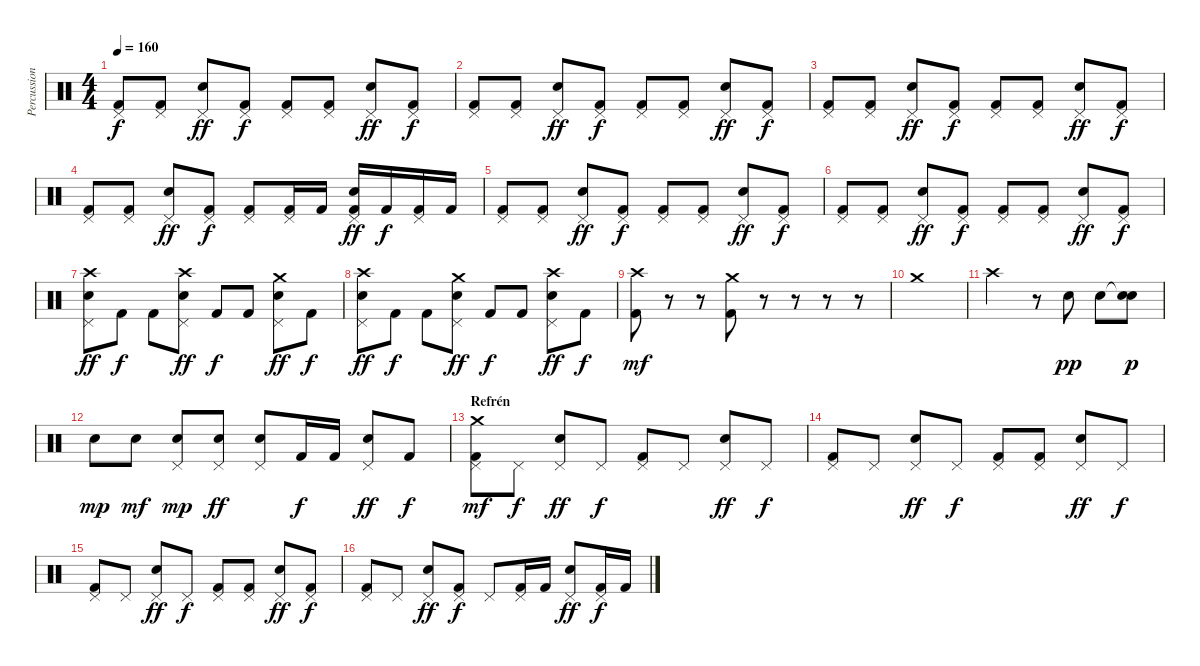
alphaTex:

\track ("Percussion" "Percussion") {instrument percussion}
\staff {score}
\articulation defaults
\ts (4 4)
\tempo 160
\clef neutral
\ks c
("Pedal Hi-Hat (hit)" "Kick (hit) 2").8{dy f} ("Pedal Hi-Hat (hit)" "Kick (hit) 2").8 ("Pedal Hi-Hat (hit)" "Electric Snare (hit)").8{dy ff} ("Pedal Hi-Hat (hit)" "Kick (hit) 2").8{dy f} ("Pedal Hi-Hat (hit)" "Kick (hit) 2").8 ("Pedal Hi-Hat (hit)" "Kick (hit) 2").8 ("Pedal Hi-Hat (hit)" "Electric Snare (hit)").8{dy ff} ("Pedal Hi-Hat (hit)" "Kick (hit) 2").8{dy f} |
("Pedal Hi-Hat (hit)" "Kick (hit) 2").8 ("Pedal Hi-Hat (hit)" "Kick (hit) 2").8 ("Pedal Hi-Hat (hit)" "Electric Snare (hit)").8{dy ff} ("Pedal Hi-Hat (hit)" "Kick (hit) 2").8{dy f} ("Pedal Hi-Hat (hit)" "Kick (hit) 2").8 ("Pedal Hi-Hat (hit)" "Kick (hit) 2").8 ("Pedal Hi-Hat (hit)" "Electric Snare (hit)").8{dy ff} ("Pedal Hi-Hat (hit)" "Kick (hit) 2").8{dy f} |
("Pedal Hi-Hat (hit)" "Kick (hit) 2").8 ("Pedal Hi-Hat (hit)" "Kick (hit) 2").8 ("Pedal Hi-Hat (hit)" "Electric Snare (hit)").8{dy ff} ("Pedal Hi-Hat (hit)" "Kick (hit) 2").8{dy f} ("Pedal Hi-Hat (hit)" "Kick (hit) 2").8 ("Pedal Hi-Hat (hit)" "Kick (hit) 2").8 ("Pedal Hi-Hat (hit)" "Electric Snare (hit)").8{dy ff} ("Pedal Hi-Hat (hit)" "Kick (hit) 2").8{dy f} |
("Pedal Hi-Hat (hit)" "Kick (hit) 2").8 ("Pedal Hi-Hat (hit)" "Kick (hit) 2").8 ("Pedal Hi-Hat (hit)" "Electric Snare (hit)").8{dy ff} ("Pedal Hi-Hat (hit)" "Kick (hit) 2").8{dy f} ("Pedal Hi-Hat (hit)" "Kick (hit) 2").8 ("Pedal Hi-Hat (hit)" "Kick (hit) 2").16 "Kick (hit) 2".16 ("Pedal Hi-Hat (hit)" "Kick (hit) 2" "Electric Snare (hit)").16{dy ff} "Kick (hit) 2".16{dy f} ("Pedal Hi-Hat (hit)" "Kick (hit) 2").16 "Kick (hit) 2".16 |
("Pedal Hi-Hat (hit)" "Kick (hit) 2").8 ("Pedal Hi-Hat (hit)" "Kick (hit) 2").8 ("Pedal Hi-Hat (hit)" "Electric Snare (hit)").8{dy ff} ("Pedal Hi-Hat (hit)" "Kick (hit) 2").8{dy f} ("Pedal Hi-Hat (hit)" "Kick (hit) 2").8 ("Pedal Hi-Hat (hit)" "Kick (hit) 2").8 ("Pedal Hi-Hat (hit)" "Electric Snare (hit)").8{dy ff} ("Pedal Hi-Hat (hit)" "Kick (hit) 2").8{dy f} |
("Pedal Hi-Hat (hit)" "Kick (hit) 2").8 ("Pedal Hi-Hat (hit)" "Kick (hit) 2").8 ("Pedal Hi-Hat (hit)" "Electric Snare (hit)").8{dy ff} ("Pedal Hi-Hat (hit)" "Kick (hit) 2").8{dy f} ("Pedal Hi-Hat (hit)" "Kick (hit) 2").8 ("Pedal Hi-Hat (hit)" "Kick (hit) 2").8 ("Pedal Hi-Hat (hit)" "Electric Snare (hit)").8{dy ff} ("Pedal Hi-Hat (hit)" "Kick (hit) 2").8{dy f} |
("Pedal Hi-Hat (hit)" "Crash high (hit)" "Electric Snare (hit)").8{dy ff} "Kick (hit) 2".8{dy f} "Kick (hit) 2".8 ("Pedal Hi-Hat (hit)" "Crash high (hit)" "Electric Snare (hit)").8{dy ff} "Kick (hit) 2".8{dy f} "Kick (hit) 2".8 ("Pedal Hi-Hat (hit)" "Crash medium (hit)" "Electric Snare (hit)").8{dy ff} "Kick (hit) 2".8{dy f} |
("Pedal Hi-Hat (hit)" "Crash high (hit)" "Electric Snare (hit)").8{dy ff} "Kick (hit) 2".8{dy f} "Kick (hit) 2".8 ("Pedal Hi-Hat (hit)" "Crash medium (hit)" "Electric Snare (hit)").8{dy ff} "Kick (hit) 2".8{dy f} "Kick (hit) 2".8 ("Pedal Hi-Hat (hit)" "Crash high (hit)" "Electric Snare (hit)").8{dy ff} "Kick (hit) 2".8{dy f} |
("Crash high (hit)" "Kick (hit) 2").8{dy mf} r.8 r.8 ("Crash medium (hit)" "Kick (hit) 2").8 r.8 r.8 r.8 r.8 |
"Crash medium (hit)".1 |
"Crash high (hit)".2 r.8 "Electric Snare (hit)".8{dy pp} "Electric Snare (hit)".8 ("Snare (hit)"{t} "Electric Snare (hit)").8{dy p} |
"Electric Snare (hit)".8{dy mp} "Electric Snare (hit)".8{dy mf} ("Pedal Hi-Hat (hit)" "Electric Snare (hit)").8{dy mp} ("Pedal Hi-Hat (hit)" "Electric Snare (hit)").8{dy ff} ("Pedal Hi-Hat (hit)" "Electric Snare (hit)").8 "Kick (hit) 2".16{dy f} "Kick (hit) 2".16 ("Pedal Hi-Hat (hit)" "Electric Snare (hit)").8{dy ff} "Kick (hit) 2".8{dy f} |
\section ("" "Refrén")
("Pedal Hi-Hat (hit)" "Crash medium (hit)" "Kick (hit) 2").8{dy mf} "Pedal Hi-Hat (hit)".8{dy f} ("Pedal Hi-Hat (hit)" "Electric Snare (hit)").8{dy ff} "Pedal Hi-Hat (hit)".8{dy f} ("Pedal Hi-Hat (hit)" "Kick (hit) 2").8 "Pedal Hi-Hat (hit)".8 ("Pedal Hi-Hat (hit)" "Electric Snare (hit)").8{dy ff} "Pedal Hi-Hat (hit)".8{dy f} |
("Pedal Hi-Hat (hit)" "Kick (hit) 2").8 "Pedal Hi-Hat (hit)".8 ("Pedal Hi-Hat (hit)" "Electric Snare (hit)").8{dy ff} "Pedal Hi-Hat (hit)".8{dy f} ("Pedal Hi-Hat (hit)" "Kick (hit) 2").8 ("Pedal Hi-Hat (hit)" "Kick (hit) 2").8 ("Pedal Hi-Hat (hit)" "Electric Snare (hit)").8{dy ff} "Pedal Hi-Hat (hit)".8{dy f} |
("Pedal Hi-Hat (hit)" "Kick (hit) 2").8 "Pedal Hi-Hat (hit)".8 ("Pedal Hi-Hat (hit)" "Electric Snare (hit)").8{dy ff} "Pedal Hi-Hat (hit)".8{dy f} ("Pedal Hi-Hat (hit)" "Kick (hit) 2").8 ("Pedal Hi-Hat (hit)" "Kick (hit) 2").8 ("Pedal Hi-Hat (hit)" "Electric Snare (hit)").8{dy ff} ("Pedal Hi-Hat (hit)" "Kick (hit) 2").8{dy f} |
("Pedal Hi-Hat (hit)" "Kick (hit) 2").8 "Pedal Hi-Hat (hit)".8 ("Pedal Hi-Hat (hit)" "Electric Snare (hit)").8{dy ff} ("Pedal Hi-Hat (hit)" "Kick (hit) 2").8{dy f} "Pedal Hi-Hat (hit)".8 ("Pedal Hi-Hat (hit)" "Kick (hit) 2").16 "Kick (hit) 2".16 ("Pedal Hi-Hat (hit)" "Electric Snare (hit)").8{dy ff} ("Pedal Hi-Hat (hit)" "Kick (hit) 2").16{dy f} "Kick (hit) 2".16
